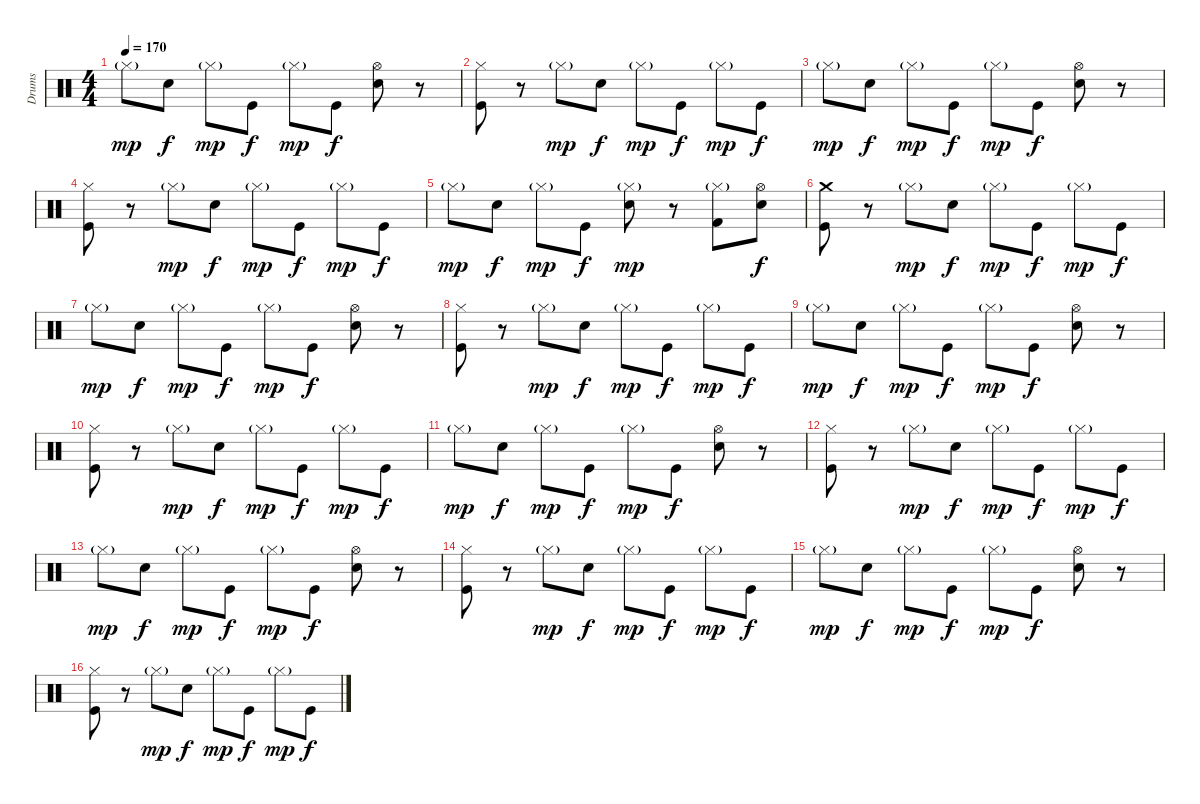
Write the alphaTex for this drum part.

\track ("Drums" "Drums") {instrument percussion}
\staff {score}
\articulation defaults
\ts (4 4)
\tempo 170
\clef neutral
\ks c "Hi-Hat (closed)"{g}.8{dy mp} "Electric Snare (hit)".8{dy f} "Hi-Hat (closed)"{g}.8{dy mp} "Kick (hit)".8{dy f} "Hi-Hat (closed)"{g}.8{dy mp} "Kick (hit)".8{dy f}
("Hi-Hat (open)" "Electric Snare (hit)").8 r.8 |
("Hi-Hat (closed)" "Kick (hit)").8 r.8 "Hi-Hat (closed)"{g}.8{dy mp} "Electric Snare (hit)".8{dy f} "Hi-Hat (closed)"{g}.8{dy mp} "Kick (hit)".8{dy f} "Hi-Hat (closed)"{g}.8{dy mp} "Kick (hit)".8{dy f} |
"Hi-Hat (closed)"{g}.8{dy mp} "Electric Snare (hit)".8{dy f} "Hi-Hat (closed)"{g}.8{dy mp} "Kick (hit)".8{dy f} "Hi-Hat (closed)"{g}.8{dy mp} "Kick (hit)".8{dy f} ("Hi-Hat (open)" "Electric Snare (hit)").8 r.8 |
("Hi-Hat (closed)" "Kick (hit)").8 r.8 "Hi-Hat (closed)"{g}.8{dy mp} "Electric Snare (hit)".8{dy f} "Hi-Hat (closed)"{g}.8{dy mp} "Kick (hit)".8{dy f} "Hi-Hat (closed)"{g}.8{dy mp} "Kick (hit)".8{dy f} |
"Hi-Hat (closed)"{g}.8{dy mp} "Electric Snare (hit)".8{dy f} "Hi-Hat (closed)"{g}.8{dy mp} "Kick (hit)".8{dy f} ("Hi-Hat (closed)"{g} "Electric Snare (hit)").8{dy mp} r.8 ("Hi-Hat (closed)"{g} "Kick (hit) 2").8 ("Hi-Hat (open)" "Electric Snare (hit)").8{dy f} |
("Crash medium (hit)" "Kick (hit)").8 r.8 "Hi-Hat (closed)"{g}.8{dy mp} "Electric Snare (hit)".8{dy f} "Hi-Hat (closed)"{g}.8{dy mp} "Kick (hit)".8{dy f} "Hi-Hat (closed)"{g}.8{dy mp} "Kick (hit)".8{dy f} |
"Hi-Hat (closed)"{g}.8{dy mp} "Electric Snare (hit)".8{dy f} "Hi-Hat (closed)"{g}.8{dy mp} "Kick (hit)".8{dy f} "Hi-Hat (closed)"{g}.8{dy mp} "Kick (hit)".8{dy f} ("Hi-Hat (open)" "Electric Snare (hit)").8 r.8 |
("Hi-Hat (closed)" "Kick (hit)").8 r.8 "Hi-Hat (closed)"{g}.8{dy mp} "Electric Snare (hit)".8{dy f} "Hi-Hat (closed)"{g}.8{dy mp} "Kick (hit)".8{dy f} "Hi-Hat (closed)"{g}.8{dy mp} "Kick (hit)".8{dy f} |
"Hi-Hat (closed)"{g}.8{dy mp} "Electric Snare (hit)".8{dy f} "Hi-Hat (closed)"{g}.8{dy mp} "Kick (hit)".8{dy f} "Hi-Hat (closed)"{g}.8{dy mp} "Kick (hit)".8{dy f} ("Hi-Hat (open)" "Electric Snare (hit)").8 r.8 |
("Hi-Hat (closed)" "Kick (hit)").8 r.8 "Hi-Hat (closed)"{g}.8{dy mp} "Electric Snare (hit)".8{dy f} "Hi-Hat (closed)"{g}.8{dy mp} "Kick (hit)".8{dy f} "Hi-Hat (closed)"{g}.8{dy mp} "Kick (hit)".8{dy f} |
"Hi-Hat (closed)"{g}.8{dy mp} "Electric Snare (hit)".8{dy f} "Hi-Hat (closed)"{g}.8{dy mp} "Kick (hit)".8{dy f} "Hi-Hat (closed)"{g}.8{dy mp} "Kick (hit)".8{dy f} ("Hi-Hat (open)" "Electric Snare (hit)").8 r.8 |
("Hi-Hat (closed)" "Kick (hit)").8 r.8 "Hi-Hat (closed)"{g}.8{dy mp} "Electric Snare (hit)".8{dy f} "Hi-Hat (closed)"{g}.8{dy mp} "Kick (hit)".8{dy f} "Hi-Hat (closed)"{g}.8{dy mp} "Kick (hit)".8{dy f} |
"Hi-Hat (closed)"{g}.8{dy mp} "Electric Snare (hit)".8{dy f} "Hi-Hat (closed)"{g}.8{dy mp} "Kick (hit)".8{dy f} "Hi-Hat (closed)"{g}.8{dy mp} "Kick (hit)".8{dy f} ("Hi-Hat (open)" "Electric Snare (hit)").8 r.8 |
("Hi-Hat (closed)" "Kick (hit)").8 r.8 "Hi-Hat (closed)"{g}.8{dy mp} "Electric Snare (hit)".8{dy f} "Hi-Hat (closed)"{g}.8{dy mp} "Kick (hit)".8{dy f} "Hi-Hat (closed)"{g}.8{dy mp} "Kick (hit)".8{dy f} |
"Hi-Hat (closed)"{g}.8{dy mp} "Electric Snare (hit)".8{dy f} "Hi-Hat (closed)"{g}.8{dy mp} "Kick (hit)".8{dy f} "Hi-Hat (closed)"{g}.8{dy mp} "Kick (hit)".8{dy f} ("Hi-Hat (open)" "Electric Snare (hit)").8 r.8 |
("Hi-Hat (closed)" "Kick (hit)").8 r.8 "Hi-Hat (closed)"{g}.8{dy mp} "Electric Snare (hit)".8{dy f} "Hi-Hat (closed)"{g}.8{dy mp} "Kick (hit)".8{dy f} "Hi-Hat (closed)"{g}.8{dy mp} "Kick (hit)".8{dy f}
